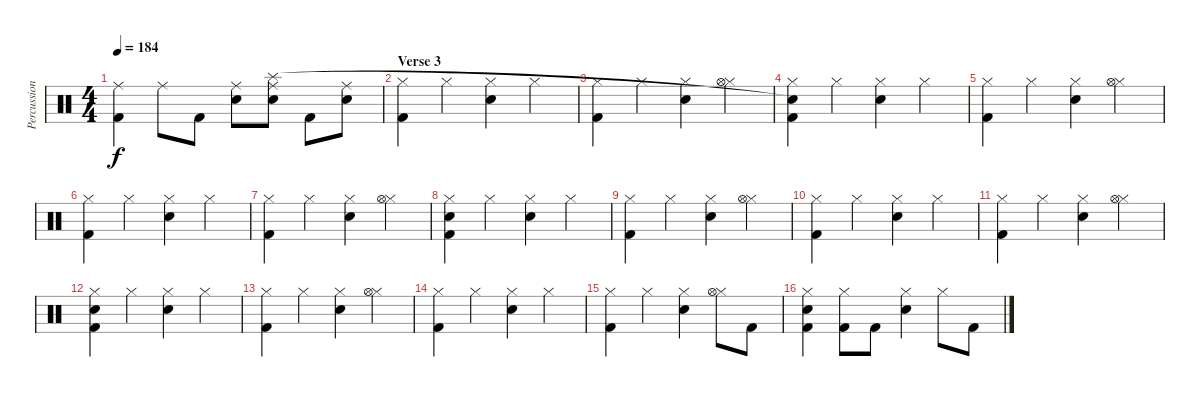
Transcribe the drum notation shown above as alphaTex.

\track ("Percussion" "Percussion") {instrument percussion}
\staff {score}
\articulation defaults
\ts (4 4)
\tempo 184
\clef neutral
\ks c
("Kick (hit) 2" "Ride (middle)").4{dy f} "Ride (middle)".8 "Kick (hit) 2".8 ("Snare (hit) 2" "Ride (middle)").8 ("Snare (hit) 2" "Ride (middle)" "Splash (hit)").8 "Kick (hit) 2".8 ("Snare (hit) 2" "Ride (middle)").8 |
\section ("" "Verse 3")
("Kick (hit) 2" "Hi-Hat (closed)").4 "Hi-Hat (closed)".4 ("Snare (hit) 2" "Hi-Hat (closed)").4 "Hi-Hat (closed)".4 |
("Kick (hit) 2" "Hi-Hat (closed)").4 "Hi-Hat (closed)".4 ("Snare (hit) 2" "Hi-Hat (closed)").4 ("Hi-Hat (closed)" "Hi-Hat (open)").4 |
("Kick (hit) 2" "Hi-Hat (closed)" "Snare (hit)"{t}).4 "Hi-Hat (closed)".4 ("Snare (hit) 2" "Hi-Hat (closed)").4 "Hi-Hat (closed)".4 |
("Kick (hit) 2" "Hi-Hat (closed)").4 "Hi-Hat (closed)".4 ("Snare (hit) 2" "Hi-Hat (closed)").4 ("Hi-Hat (closed)" "Hi-Hat (open)").4 |
("Kick (hit) 2" "Hi-Hat (closed)").4 "Hi-Hat (closed)".4 ("Snare (hit) 2" "Hi-Hat (closed)").4 "Hi-Hat (closed)".4 |
("Kick (hit) 2" "Hi-Hat (closed)").4 "Hi-Hat (closed)".4 ("Snare (hit) 2" "Hi-Hat (closed)").4 ("Hi-Hat (closed)" "Hi-Hat (open)").4 |
("Kick (hit) 2" "Hi-Hat (closed)" "Snare (hit)").4 "Hi-Hat (closed)".4 ("Snare (hit) 2" "Hi-Hat (closed)").4 "Hi-Hat (closed)".4 |
("Kick (hit) 2" "Hi-Hat (closed)").4 "Hi-Hat (closed)".4 ("Snare (hit) 2" "Hi-Hat (closed)").4 ("Hi-Hat (closed)" "Hi-Hat (open)").4 |
("Kick (hit) 2" "Hi-Hat (closed)").4 "Hi-Hat (closed)".4 ("Snare (hit) 2" "Hi-Hat (closed)").4 "Hi-Hat (closed)".4 |
("Kick (hit) 2" "Hi-Hat (closed)").4 "Hi-Hat (closed)".4 ("Snare (hit) 2" "Hi-Hat (closed)").4 ("Hi-Hat (closed)" "Hi-Hat (open)").4 |
("Kick (hit) 2" "Hi-Hat (closed)" "Snare (hit)").4 "Hi-Hat (closed)".4 ("Snare (hit) 2" "Hi-Hat (closed)").4 "Hi-Hat (closed)".4 |
("Kick (hit) 2" "Hi-Hat (closed)").4 "Hi-Hat (closed)".4 ("Snare (hit) 2" "Hi-Hat (closed)").4 ("Hi-Hat (closed)" "Hi-Hat (open)").4 |
("Kick (hit) 2" "Hi-Hat (closed)").4 "Hi-Hat (closed)".4 ("Snare (hit) 2" "Hi-Hat (closed)").4 "Hi-Hat (closed)".4 |
("Kick (hit) 2" "Hi-Hat (closed)").4 "Hi-Hat (closed)".4 ("Snare (hit) 2" "Hi-Hat (closed)").4 ("Hi-Hat (closed)" "Hi-Hat (open)").8 "Kick (hit) 2".8 |
("Kick (hit) 2" "Hi-Hat (closed)" "Snare (hit)").4 ("Kick (hit) 2" "Hi-Hat (closed)").8 "Kick (hit) 2".8 ("Snare (hit) 2" "Hi-Hat (closed)").4 "Hi-Hat (closed)".8 "Kick (hit) 2".8
